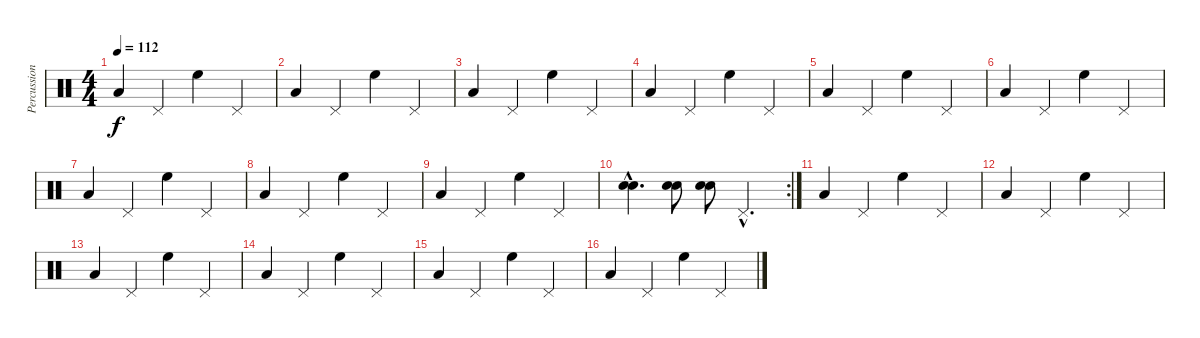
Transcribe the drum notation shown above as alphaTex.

\track ("Percussion" "Percussion") {instrument percussion}
\staff {score}
\articulation defaults
\ts (4 4)
\tempo 112
\clef neutral
\ks c "Low Floor Tom (hit)".4{dy f} "Pedal Hi-Hat (hit)".4 "High Floor Tom (hit)".4 "Pedal Hi-Hat (hit)".4
|
"Low Floor Tom (hit)".4 "Pedal Hi-Hat (hit)".4 "High Floor Tom (hit)".4 "Pedal Hi-Hat (hit)".4 |
"Low Floor Tom (hit)".4 "Pedal Hi-Hat (hit)".4 "High Floor Tom (hit)".4 "Pedal Hi-Hat (hit)".4 |
"Low Floor Tom (hit)".4 "Pedal Hi-Hat (hit)".4 "High Floor Tom (hit)".4 "Pedal Hi-Hat (hit)".4 |
"Low Floor Tom (hit)".4 "Pedal Hi-Hat (hit)".4 "High Floor Tom (hit)".4 "Pedal Hi-Hat (hit)".4 |
"Low Floor Tom (hit)".4 "Pedal Hi-Hat (hit)".4 "High Floor Tom (hit)".4 "Pedal Hi-Hat (hit)".4 |
"Low Floor Tom (hit)".4 "Pedal Hi-Hat (hit)".4 "High Floor Tom (hit)".4 "Pedal Hi-Hat (hit)".4 |
"Low Floor Tom (hit)".4 "Pedal Hi-Hat (hit)".4 "High Floor Tom (hit)".4 "Pedal Hi-Hat (hit)".4 |
"Low Floor Tom (hit)".4 "Pedal Hi-Hat (hit)".4 "High Floor Tom (hit)".4 "Pedal Hi-Hat (hit)".4 |
\rc 2
("Snare (hit) 2"{hac} "Snare (hit) 2"{hac}).4{d} ("Snare (hit) 2" "Snare (hit) 2").8 ("Snare (hit) 2" "Snare (hit) 2").8 "Pedal Hi-Hat (hit)"{hac}.4{d} |
"Low Floor Tom (hit)".4 "Pedal Hi-Hat (hit)".4 "High Floor Tom (hit)".4 "Pedal Hi-Hat (hit)".4 |
"Low Floor Tom (hit)".4 "Pedal Hi-Hat (hit)".4 "High Floor Tom (hit)".4 "Pedal Hi-Hat (hit)".4 |
"Low Floor Tom (hit)".4 "Pedal Hi-Hat (hit)".4 "High Floor Tom (hit)".4 "Pedal Hi-Hat (hit)".4 |
"Low Floor Tom (hit)".4 "Pedal Hi-Hat (hit)".4 "High Floor Tom (hit)".4 "Pedal Hi-Hat (hit)".4 |
"Low Floor Tom (hit)".4 "Pedal Hi-Hat (hit)".4 "High Floor Tom (hit)".4 "Pedal Hi-Hat (hit)".4 |
"Low Floor Tom (hit)".4 "Pedal Hi-Hat (hit)".4 "High Floor Tom (hit)".4 "Pedal Hi-Hat (hit)".4
